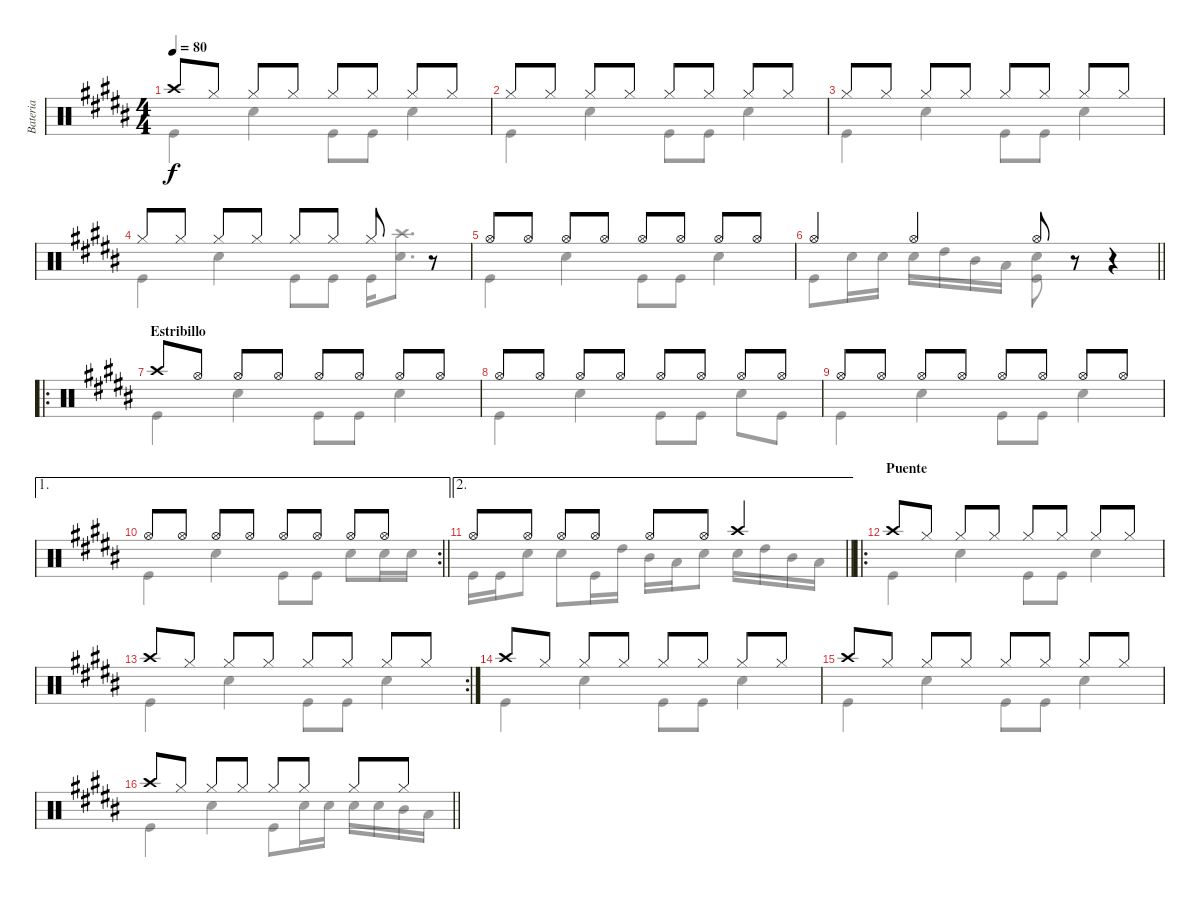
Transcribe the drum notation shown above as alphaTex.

\track ("Bateria" "Bateria") {instrument percussion}
\staff {score}
\articulation defaults
\voice
\ts (4 4)
\tempo 80
\clef neutral
\ks b "Crash high (hit)".8{dy f} "Hi-Hat (closed)".8 "Hi-Hat (closed)".8 "Hi-Hat (closed)".8 "Hi-Hat (closed)".8 "Hi-Hat (closed)".8 "Hi-Hat (closed)".8 "Hi-Hat (closed)".8
|
"Hi-Hat (closed)".8 "Hi-Hat (closed)".8 "Hi-Hat (closed)".8 "Hi-Hat (closed)".8 "Hi-Hat (closed)".8 "Hi-Hat (closed)".8 "Hi-Hat (closed)".8 "Hi-Hat (closed)".8 |
"Hi-Hat (closed)".8 "Hi-Hat (closed)".8 "Hi-Hat (closed)".8 "Hi-Hat (closed)".8 "Hi-Hat (closed)".8 "Hi-Hat (closed)".8 "Hi-Hat (closed)".8 "Hi-Hat (closed)".8 |
"Hi-Hat (closed)".8 "Hi-Hat (closed)".8 "Hi-Hat (closed)".8 "Hi-Hat (closed)".8 "Hi-Hat (closed)".8 "Hi-Hat (closed)".8 "Hi-Hat (closed)".8 r.8 |
"Hi-Hat (open)".8 "Hi-Hat (open)".8 "Hi-Hat (open)".8 "Hi-Hat (open)".8 "Hi-Hat (open)".8 "Hi-Hat (open)".8 "Hi-Hat (open)".8 "Hi-Hat (open)".8 |
\barLineRight lightlight "Hi-Hat (open)".4 "Hi-Hat (open)".4 "Hi-Hat (open)".8
r.8 r.4 |
\ro
\section ("" "Estribillo")
"Crash high (hit)".8 "Hi-Hat (open)".8 "Hi-Hat (open)".8 "Hi-Hat (open)".8 "Hi-Hat (open)".8 "Hi-Hat (open)".8 "Hi-Hat (open)".8 "Hi-Hat (open)".8 |
"Hi-Hat (open)".8 "Hi-Hat (open)".8 "Hi-Hat (open)".8 "Hi-Hat (open)".8 "Hi-Hat (open)".8 "Hi-Hat (open)".8 "Hi-Hat (open)".8 "Hi-Hat (open)".8 |
"Hi-Hat (open)".8 "Hi-Hat (open)".8 "Hi-Hat (open)".8 "Hi-Hat (open)".8 "Hi-Hat (open)".8 "Hi-Hat (open)".8 "Hi-Hat (open)".8 "Hi-Hat (open)".8 |
\ae 1
\rc 2
\barLineRight lightlight "Hi-Hat (open)".8 "Hi-Hat (open)".8 "Hi-Hat (open)".8 "Hi-Hat (open)".8 "Hi-Hat (open)".8 "Hi-Hat (open)".8 "Hi-Hat (open)".8 "Hi-Hat (open)".8
|
\ae 2
\barLineRight lightlight "Hi-Hat (open)".8 "Hi-Hat (open)".8 "Hi-Hat (open)".8 "Hi-Hat (open)".8 "Hi-Hat (open)".8 "Hi-Hat (open)".8 "Crash high (hit)".4
|
\ro
\section ("" "Puente")
"Crash high (hit)".8 "Hi-Hat (closed)".8 "Hi-Hat (closed)".8 "Hi-Hat (closed)".8 "Hi-Hat (closed)".8 "Hi-Hat (closed)".8 "Hi-Hat (closed)".8 "Hi-Hat (closed)".8 |
\rc 2 "Crash high (hit)".8 "Hi-Hat (closed)".8 "Hi-Hat (closed)".8 "Hi-Hat (closed)".8 "Hi-Hat (closed)".8 "Hi-Hat (closed)".8 "Hi-Hat (closed)".8 "Hi-Hat (closed)".8
|
"Crash high (hit)".8 "Hi-Hat (closed)".8 "Hi-Hat (closed)".8 "Hi-Hat (closed)".8 "Hi-Hat (closed)".8 "Hi-Hat (closed)".8 "Hi-Hat (closed)".8 "Hi-Hat (closed)".8 |
"Crash high (hit)".8 "Hi-Hat (closed)".8 "Hi-Hat (closed)".8 "Hi-Hat (closed)".8 "Hi-Hat (closed)".8 "Hi-Hat (closed)".8 "Hi-Hat (closed)".8 "Hi-Hat (closed)".8 |
\barLineRight lightlight "Crash high (hit)".8 "Hi-Hat (closed)".8 "Hi-Hat (closed)".8 "Hi-Hat (closed)".8 "Hi-Hat (closed)".8 "Hi-Hat (closed)".8 "Hi-Hat (closed)".8 "Hi-Hat (closed)".8
\voice
\clef neutral
\ottava regular
\simile none
\ks b "Kick (hit)".4{dy f} "Snare (hit) 2".4 "Kick (hit)".8 "Kick (hit)".8 "Snare (hit) 2".4
|
"Kick (hit)".4 "Snare (hit) 2".4 "Kick (hit)".8 "Kick (hit)".8 "Snare (hit) 2".4 |
"Kick (hit)".4 "Snare (hit) 2".4 "Kick (hit)".8 "Kick (hit)".8 "Snare (hit) 2".4 |
"Kick (hit)".4 "Snare (hit) 2".4 "Kick (hit)".8 "Kick (hit)".8 "Kick (hit)".16 ("Crash high (hit)" "Snare (hit) 2").8{d} |
"Kick (hit)".4 "Snare (hit) 2".4 "Kick (hit)".8 "Kick (hit)".8 "Snare (hit) 2".4 |
\barLineRight lightlight "Kick (hit)".8 "Snare (hit) 2".16 "Snare (hit) 2".16 "Snare (hit) 2".16 "High Tom (hit)".16 "Mid Tom (hit)".16 "Low Tom (hit)".16
("Snare (hit) 2" "Kick (hit)").8 r.8 r.4 |
"Kick (hit)".4 "Snare (hit) 2".4 "Kick (hit)".8 "Kick (hit)".8 "Snare (hit) 2".4 |
"Kick (hit)".4 "Snare (hit) 2".4 "Kick (hit)".8 "Kick (hit)".8 "Snare (hit) 2".8 "Kick (hit)".8 |
"Kick (hit)".4 "Snare (hit) 2".4 "Kick (hit)".8 "Kick (hit)".8 "Snare (hit) 2".4 |
\barLineRight lightlight "Kick (hit)".4 "Snare (hit) 2".4 "Kick (hit)".8 "Kick (hit)".8 "Snare (hit) 2".8 "Snare (hit) 2".16 "Snare (hit) 2".16
|
\barLineRight lightlight "Kick (hit)".16 "Kick (hit)".16 "Snare (hit) 2".8 "Snare (hit) 2".8 "Kick (hit)".16 "High Tom (hit)".16 "Mid Tom (hit)".16 "Low Tom (hit)".16 "Snare (hit) 2".8 "Snare (hit) 2".16 "High Tom (hit)".16 "Mid Tom (hit)".16 "Low Tom (hit)".16
|
"Kick (hit)".4 "Snare (hit) 2".4 "Kick (hit)".8 "Kick (hit)".8 "Snare (hit) 2".4 |
"Kick (hit)".4 "Snare (hit) 2".4 "Kick (hit)".8 "Kick (hit)".8 "Snare (hit) 2".4 |
"Kick (hit)".4 "Snare (hit) 2".4 "Kick (hit)".8 "Kick (hit)".8 "Snare (hit) 2".4 |
"Kick (hit)".4 "Snare (hit) 2".4 "Kick (hit)".8 "Kick (hit)".8 "Snare (hit) 2".4 |
\barLineRight lightlight "Kick (hit)".4 "Snare (hit) 2".4 "Kick (hit)".8 "Snare (hit) 2".16 "Snare (hit) 2".16 "Snare (hit) 2".16 "Snare (hit) 2".16 "Mid Tom (hit)".16 "Low Tom (hit)".16
